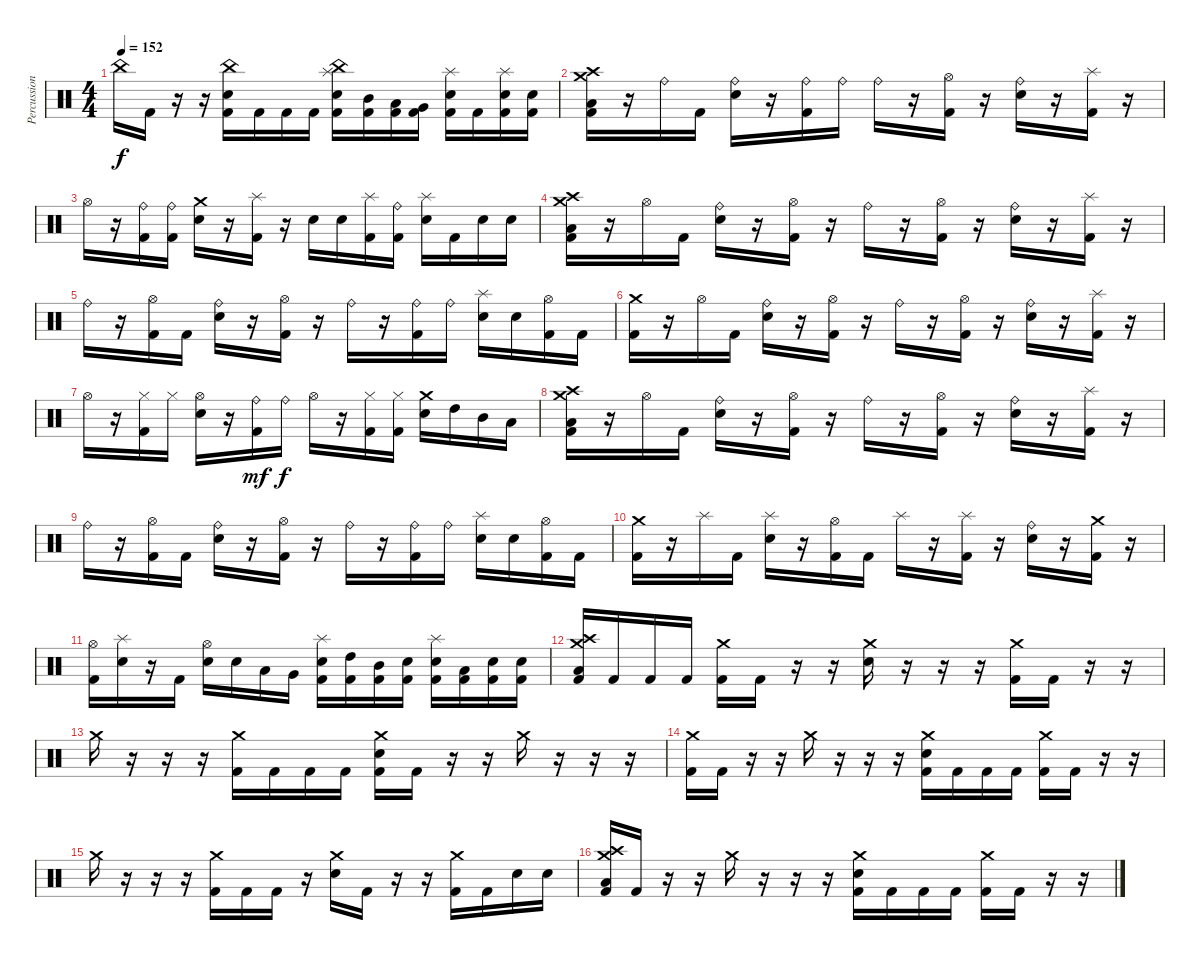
\track ("Percussion" "Percussion") {instrument percussion}
\staff {score}
\articulation defaults
\ts (4 4)
\tempo 152
\clef neutral
\ks c "China (hit)".16{dy f} "Kick (hit) 2".16
r.16 r.16 ("China (hit)" "Electric Snare (hit)" "Kick (hit) 2").16 "Kick (hit) 2".16 "Kick (hit) 2".16 "Kick (hit) 2".16 ("China (hit)" "Splash (hit)" "Electric Snare (hit)" "Kick (hit) 2").16 ("Mid Tom (hit)" "Kick (hit) 2").16 ("Low Tom (hit)" "Kick (hit) 2").16 ("Very Low Tom (hit)" "Kick (hit) 2").16 ("Splash (hit)" "Electric Snare (hit)" "Kick (hit) 2").16 "Kick (hit) 2".16 ("Splash (hit)" "Electric Snare (hit)" "Kick (hit) 2").16 ("Electric Snare (hit)" "Kick (hit) 2").16 |
("Crash high (hit)" "Crash medium (hit)" "Low Floor Tom (hit)" "Kick (hit) 2").16 r.16 "Ride (bell)".16 "Kick (hit) 2".16 ("Ride (bell)" "Electric Snare (hit)").16 r.16 ("Ride (bell)" "Kick (hit) 2").16 "Ride (bell)".16 "Ride (bell)".16 r.16 ("Hi-Hat (open)" "Kick (hit) 2").16 r.16 ("Ride (bell)" "Electric Snare (hit)").16 r.16 ("Splash (hit)" "Kick (hit) 2").16 r.16 |
"Hi-Hat (open)".16 r.16 ("Ride (bell)" "Kick (hit) 2").16 ("Ride (bell)" "Kick (hit) 2").16 ("Crash medium (hit)" "Electric Snare (hit)").16 r.16 ("Splash (hit)" "Kick (hit) 2").16 r.16 "Electric Snare (hit)".16 "Electric Snare (hit)".16 ("Splash (hit)" "Kick (hit) 2").16 ("Ride (bell)" "Kick (hit) 2").16 ("Splash (hit)" "Electric Snare (hit)").16 "Kick (hit) 2".16 "Electric Snare (hit)".16 "Electric Snare (hit)".16 |
("Crash high (hit)" "Crash medium (hit)" "Low Floor Tom (hit)" "Kick (hit) 2").16 r.16 "Hi-Hat (open)".16 "Kick (hit) 2".16 ("Ride (bell)" "Electric Snare (hit)").16 r.16 ("Hi-Hat (open)" "Kick (hit) 2").16 r.16 "Ride (bell)".16 r.16 ("Hi-Hat (open)" "Kick (hit) 2").16 r.16 ("Ride (bell)" "Electric Snare (hit)").16 r.16 ("Splash (hit)" "Kick (hit) 2").16 r.16 |
"Ride (bell)".16 r.16 ("Hi-Hat (open)" "Kick (hit) 2").16 "Kick (hit) 2".16 ("Ride (bell)" "Electric Snare (hit)").16 r.16 ("Hi-Hat (open)" "Kick (hit) 2").16 r.16 "Ride (bell)".16 r.16 ("Ride (bell)" "Kick (hit) 2").16 "Ride (bell)".16 ("Splash (hit)" "Electric Snare (hit)").16 "Electric Snare (hit)".16 ("Hi-Hat (open)" "Kick (hit) 2").16 "Kick (hit) 2".16 |
("Crash medium (hit)" "Kick (hit) 2").16 r.16 "Hi-Hat (open)".16 "Kick (hit) 2".16 ("Ride (bell)" "Electric Snare (hit)").16 r.16 ("Hi-Hat (open)" "Kick (hit) 2").16 r.16 "Ride (bell)".16 r.16 ("Hi-Hat (open)" "Kick (hit) 2").16 r.16 ("Ride (bell)" "Electric Snare (hit)").16 r.16 ("Splash (hit)" "Kick (hit) 2").16 r.16 |
"Hi-Hat (open)".16 r.16 ("Hi-Hat (closed)" "Kick (hit) 2").16 "Hi-Hat (closed)".16 ("Hi-Hat (open)" "Electric Snare (hit)").16 r.16 ("Ride (bell)" "Kick (hit) 2").16{dy mf} "Ride (bell)".16{dy f} "Hi-Hat (open)".16 r.16 ("Hi-Hat (closed)" "Kick (hit) 2").16 ("Hi-Hat (closed)" "Kick (hit) 2").16 ("Crash medium (hit)" "Electric Snare (hit)").16 "High Tom (hit)".16 "Mid Tom (hit)".16 "Low Tom (hit)".16 |
("Crash high (hit)" "Crash medium (hit)" "Low Floor Tom (hit)" "Kick (hit) 2").16 r.16 "Hi-Hat (open)".16 "Kick (hit) 2".16 ("Ride (bell)" "Electric Snare (hit)").16 r.16 ("Hi-Hat (open)" "Kick (hit) 2").16 r.16 "Ride (bell)".16 r.16 ("Hi-Hat (open)" "Kick (hit) 2").16 r.16 ("Ride (bell)" "Electric Snare (hit)").16 r.16 ("Splash (hit)" "Kick (hit) 2").16 r.16 |
"Ride (bell)".16 r.16 ("Hi-Hat (open)" "Kick (hit) 2").16 "Kick (hit) 2".16 ("Ride (bell)" "Electric Snare (hit)").16 r.16 ("Hi-Hat (open)" "Kick (hit) 2").16 r.16 "Ride (bell)".16 r.16 ("Ride (bell)" "Kick (hit) 2").16 "Ride (bell)".16 ("Splash (hit)" "Electric Snare (hit)").16 "Electric Snare (hit)".16 ("Hi-Hat (open)" "Kick (hit) 2").16 "Kick (hit) 2".16 |
("Crash medium (hit)" "Kick (hit) 2").16 r.16 "Splash (hit)".16 "Kick (hit) 2".16 ("Splash (hit)" "Electric Snare (hit)").16 r.16 ("Hi-Hat (open)" "Kick (hit) 2").16 "Kick (hit) 2".16 "Splash (hit)".16 r.16 ("Splash (hit)" "Kick (hit) 2").16 r.16 ("Ride (bell)" "Electric Snare (hit)").16 r.16 ("Crash medium (hit)" "Kick (hit) 2").16 r.16 |
("Hi-Hat (open)" "Kick (hit) 2").16 ("Splash (hit)" "Electric Snare (hit)").16 r.16 "Kick (hit) 2".16 ("Hi-Hat (open)" "Electric Snare (hit)").16 "Electric Snare (hit)".16 "Low Tom (hit)".16 "Very Low Tom (hit)".16 ("Splash (hit)" "Electric Snare (hit)" "Kick (hit) 2").16 ("High Tom (hit)" "Kick (hit) 2").16 ("Mid Tom (hit)" "Kick (hit) 2").16 ("Electric Snare (hit)" "Kick (hit) 2").16 ("Splash (hit)" "Electric Snare (hit)" "Kick (hit) 2").16 ("Low Floor Tom (hit)" "Kick (hit) 2").16 ("Electric Snare (hit)" "Kick (hit) 2").16 ("Electric Snare (hit)" "Kick (hit) 2").16 |
("Crash medium (hit)" "Crash high (hit)" "Low Floor Tom (hit)" "Kick (hit) 2").16 "Kick (hit) 2".16 "Kick (hit) 2".16 "Kick (hit) 2".16 ("Crash medium (hit)" "Kick (hit) 2").16 "Kick (hit) 2".16 r.16 r.16 ("Crash medium (hit)" "Electric Snare (hit)").16 r.16 r.16 r.16 ("Crash medium (hit)" "Kick (hit) 2").16 "Kick (hit) 2".16 r.16 r.16 |
"Crash medium (hit)".16 r.16 r.16 r.16 ("Crash medium (hit)" "Kick (hit) 2").16 "Kick (hit) 2".16 "Kick (hit) 2".16 "Kick (hit) 2".16 ("Crash medium (hit)" "Electric Snare (hit)" "Kick (hit) 2").16 "Kick (hit) 2".16 r.16 r.16 "Crash medium (hit)".16 r.16 r.16 r.16 |
("Crash medium (hit)" "Kick (hit) 2").16 "Kick (hit) 2".16 r.16 r.16 "Crash medium (hit)".16 r.16 r.16 r.16 ("Crash medium (hit)" "Electric Snare (hit)" "Kick (hit) 2").16 "Kick (hit) 2".16 "Kick (hit) 2".16 "Kick (hit) 2".16 ("Crash medium (hit)" "Kick (hit) 2").16 "Kick (hit) 2".16 r.16 r.16 |
"Crash medium (hit)".16 r.16 r.16 r.16 ("Crash medium (hit)" "Kick (hit) 2").16 "Kick (hit) 2".16 "Kick (hit) 2".16 r.16 ("Crash medium (hit)" "Electric Snare (hit)").16 "Kick (hit) 2".16 r.16 r.16 ("Crash medium (hit)" "Kick (hit) 2").16 "Kick (hit) 2".16 "Electric Snare (hit)".16 "Electric Snare (hit)".16 |
("Crash medium (hit)" "Crash high (hit)" "Low Floor Tom (hit)" "Kick (hit) 2").16 "Kick (hit) 2".16 r.16 r.16 "Crash medium (hit)".16 r.16 r.16 r.16 ("Crash medium (hit)" "Electric Snare (hit)" "Kick (hit) 2").16 "Kick (hit) 2".16 "Kick (hit) 2".16 "Kick (hit) 2".16 ("Crash medium (hit)" "Kick (hit) 2").16 "Kick (hit) 2".16 r.16 r.16
